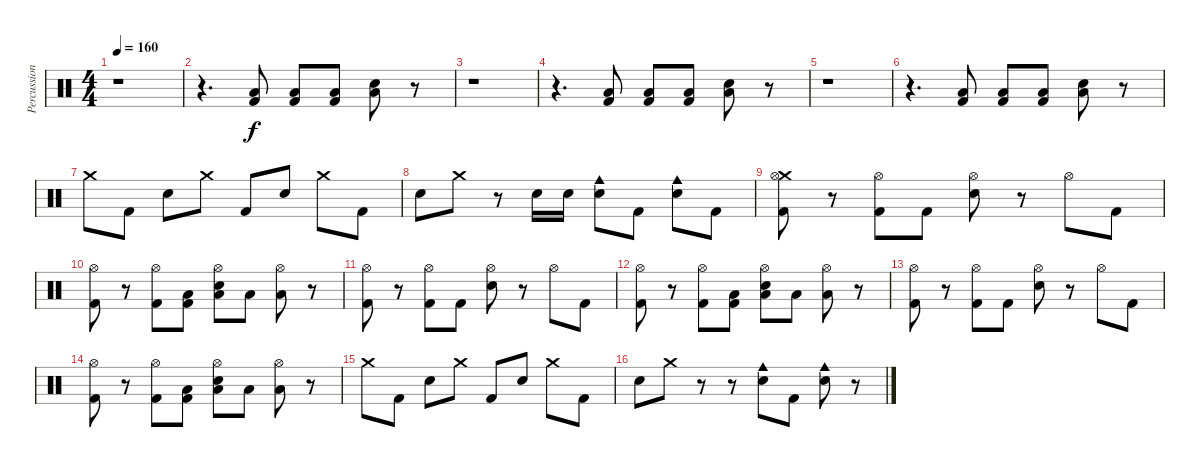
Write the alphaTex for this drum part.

\track ("Percussion" "Percussion") {instrument percussion}
\staff {score}
\articulation defaults
\ts (4 4)
\tempo 160
\clef neutral
\ks c
r.1{dy f} |
r.4{d} ("Kick (hit) 2" "Low Tom (hit)").8 ("Kick (hit) 2" "Low Tom (hit)").8 ("Kick (hit) 2" "Low Tom (hit)").8 ("Electric Snare (hit)" "Low Tom (hit)").8 r.8 |
r.1 |
r.4{d} ("Kick (hit) 2" "Low Tom (hit)").8 ("Kick (hit) 2" "Low Tom (hit)").8 ("Kick (hit) 2" "Low Tom (hit)").8 ("Electric Snare (hit)" "Low Tom (hit)").8 r.8 |
r.1 |
r.4{d} ("Kick (hit) 2" "Low Tom (hit)").8 ("Kick (hit) 2" "Low Tom (hit)").8 ("Kick (hit) 2" "Low Tom (hit)").8 ("Electric Snare (hit)" "Low Tom (hit)").8 r.8 |
"Crash medium (hit)".8 "Kick (hit) 2".8 "Electric Snare (hit)".8 "Crash medium (hit)".8 "Kick (hit) 2".8 "Electric Snare (hit)".8 "Crash medium (hit)".8 "Kick (hit) 2".8 |
"Electric Snare (hit)".8 "Crash medium (hit)".8 r.8 "Electric Snare (hit)".16 "Electric Snare (hit)".16 ("Cowbell medium (hit)" "Electric Snare (hit)").8 "Kick (hit) 2".8 ("Cowbell medium (hit)" "Electric Snare (hit)").8 "Kick (hit) 2".8 |
("Crash medium (hit)" "Hi-Hat (open)" "Kick (hit) 2").8 r.8 ("Hi-Hat (open)" "Kick (hit) 2").8 "Kick (hit) 2".8 ("Hi-Hat (open)" "Electric Snare (hit)").8 r.8 "Hi-Hat (open)".8 "Kick (hit) 2".8 |
("Hi-Hat (open)" "Kick (hit) 2").8 r.8 ("Hi-Hat (open)" "Kick (hit) 2").8 ("Low Tom (hit)" "Kick (hit) 2").8 ("Low Tom (hit)" "Hi-Hat (open)" "Electric Snare (hit)").8 "Low Tom (hit)".8 ("Low Tom (hit)" "Hi-Hat (open)").8 r.8 |
("Hi-Hat (open)" "Kick (hit) 2").8 r.8 ("Hi-Hat (open)" "Kick (hit) 2").8 "Kick (hit) 2".8 ("Hi-Hat (open)" "Electric Snare (hit)").8 r.8 "Hi-Hat (open)".8 "Kick (hit) 2".8 |
("Hi-Hat (open)" "Kick (hit) 2").8 r.8 ("Hi-Hat (open)" "Kick (hit) 2").8 ("Low Tom (hit)" "Kick (hit) 2").8 ("Low Tom (hit)" "Hi-Hat (open)" "Electric Snare (hit)").8 "Low Tom (hit)".8 ("Low Tom (hit)" "Hi-Hat (open)").8 r.8 |
("Hi-Hat (open)" "Kick (hit) 2").8 r.8 ("Hi-Hat (open)" "Kick (hit) 2").8 "Kick (hit) 2".8 ("Hi-Hat (open)" "Electric Snare (hit)").8 r.8 "Hi-Hat (open)".8 "Kick (hit) 2".8 |
("Hi-Hat (open)" "Kick (hit) 2").8 r.8 ("Hi-Hat (open)" "Kick (hit) 2").8 ("Low Tom (hit)" "Kick (hit) 2").8 ("Low Tom (hit)" "Hi-Hat (open)" "Electric Snare (hit)").8 "Low Tom (hit)".8 ("Low Tom (hit)" "Hi-Hat (open)").8 r.8 |
"Crash medium (hit)".8 "Kick (hit) 2".8 "Electric Snare (hit)".8 "Crash medium (hit)".8 "Kick (hit) 2".8 "Electric Snare (hit)".8 "Crash medium (hit)".8 "Kick (hit) 2".8 |
"Electric Snare (hit)".8 "Crash medium (hit)".8 r.8 r.8 ("Cowbell medium (hit)" "Electric Snare (hit)").8 "Kick (hit) 2".8 ("Cowbell medium (hit)" "Electric Snare (hit)").8 r.8
